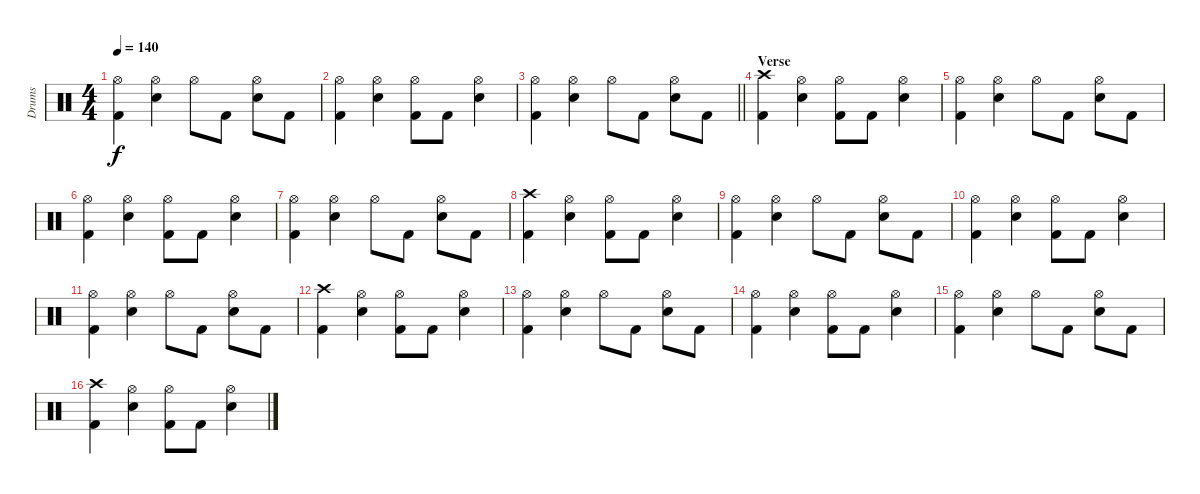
\track ("Drums" "Drums") {instrument percussion}
\staff {score}
\articulation defaults
\ts (4 4)
\tempo 140
\clef neutral
\ks c
("Hi-Hat (open)" "Kick (hit) 2").4{dy f} ("Hi-Hat (open)" "Electric Snare (hit)").4 "Hi-Hat (open)".8 "Kick (hit) 2".8 ("Hi-Hat (open)" "Electric Snare (hit)").8 "Kick (hit) 2".8 |
("Hi-Hat (open)" "Kick (hit) 2").4 ("Hi-Hat (open)" "Electric Snare (hit)").4 ("Hi-Hat (open)" "Kick (hit) 2").8 "Kick (hit) 2".8 ("Hi-Hat (open)" "Electric Snare (hit)").4 |
\barLineRight lightlight
("Hi-Hat (open)" "Kick (hit) 2").4 ("Hi-Hat (open)" "Electric Snare (hit)").4 "Hi-Hat (open)".8 "Kick (hit) 2".8 ("Hi-Hat (open)" "Electric Snare (hit)").8 "Kick (hit) 2".8 |
\section ("" "Verse ")
("Crash high (hit)" "Kick (hit) 2").4 ("Hi-Hat (open)" "Electric Snare (hit)").4 ("Hi-Hat (open)" "Kick (hit) 2").8 "Kick (hit) 2".8 ("Hi-Hat (open)" "Electric Snare (hit)").4 |
("Hi-Hat (open)" "Kick (hit) 2").4 ("Hi-Hat (open)" "Electric Snare (hit)").4 "Hi-Hat (open)".8 "Kick (hit) 2".8 ("Hi-Hat (open)" "Electric Snare (hit)").8 "Kick (hit) 2".8 |
("Hi-Hat (open)" "Kick (hit) 2").4 ("Hi-Hat (open)" "Electric Snare (hit)").4 ("Hi-Hat (open)" "Kick (hit) 2").8 "Kick (hit) 2".8 ("Hi-Hat (open)" "Electric Snare (hit)").4 |
("Hi-Hat (open)" "Kick (hit) 2").4 ("Hi-Hat (open)" "Electric Snare (hit)").4 "Hi-Hat (open)".8 "Kick (hit) 2".8 ("Hi-Hat (open)" "Electric Snare (hit)").8 "Kick (hit) 2".8 |
("Crash high (hit)" "Kick (hit) 2").4 ("Hi-Hat (open)" "Electric Snare (hit)").4 ("Hi-Hat (open)" "Kick (hit) 2").8 "Kick (hit) 2".8 ("Hi-Hat (open)" "Electric Snare (hit)").4 |
("Hi-Hat (open)" "Kick (hit) 2").4 ("Hi-Hat (open)" "Electric Snare (hit)").4 "Hi-Hat (open)".8 "Kick (hit) 2".8 ("Hi-Hat (open)" "Electric Snare (hit)").8 "Kick (hit) 2".8 |
("Hi-Hat (open)" "Kick (hit) 2").4 ("Hi-Hat (open)" "Electric Snare (hit)").4 ("Hi-Hat (open)" "Kick (hit) 2").8 "Kick (hit) 2".8 ("Hi-Hat (open)" "Electric Snare (hit)").4 |
("Hi-Hat (open)" "Kick (hit) 2").4 ("Hi-Hat (open)" "Electric Snare (hit)").4 "Hi-Hat (open)".8 "Kick (hit) 2".8 ("Hi-Hat (open)" "Electric Snare (hit)").8 "Kick (hit) 2".8 |
("Crash high (hit)" "Kick (hit) 2").4 ("Hi-Hat (open)" "Electric Snare (hit)").4 ("Hi-Hat (open)" "Kick (hit) 2").8 "Kick (hit) 2".8 ("Hi-Hat (open)" "Electric Snare (hit)").4 |
("Hi-Hat (open)" "Kick (hit) 2").4 ("Hi-Hat (open)" "Electric Snare (hit)").4 "Hi-Hat (open)".8 "Kick (hit) 2".8 ("Hi-Hat (open)" "Electric Snare (hit)").8 "Kick (hit) 2".8 |
("Hi-Hat (open)" "Kick (hit) 2").4 ("Hi-Hat (open)" "Electric Snare (hit)").4 ("Hi-Hat (open)" "Kick (hit) 2").8 "Kick (hit) 2".8 ("Hi-Hat (open)" "Electric Snare (hit)").4 |
("Hi-Hat (open)" "Kick (hit) 2").4 ("Hi-Hat (open)" "Electric Snare (hit)").4 "Hi-Hat (open)".8 "Kick (hit) 2".8 ("Hi-Hat (open)" "Electric Snare (hit)").8 "Kick (hit) 2".8 |
("Crash high (hit)" "Kick (hit) 2").4 ("Hi-Hat (open)" "Electric Snare (hit)").4 ("Hi-Hat (open)" "Kick (hit) 2").8 "Kick (hit) 2".8 ("Hi-Hat (open)" "Electric Snare (hit)").4
